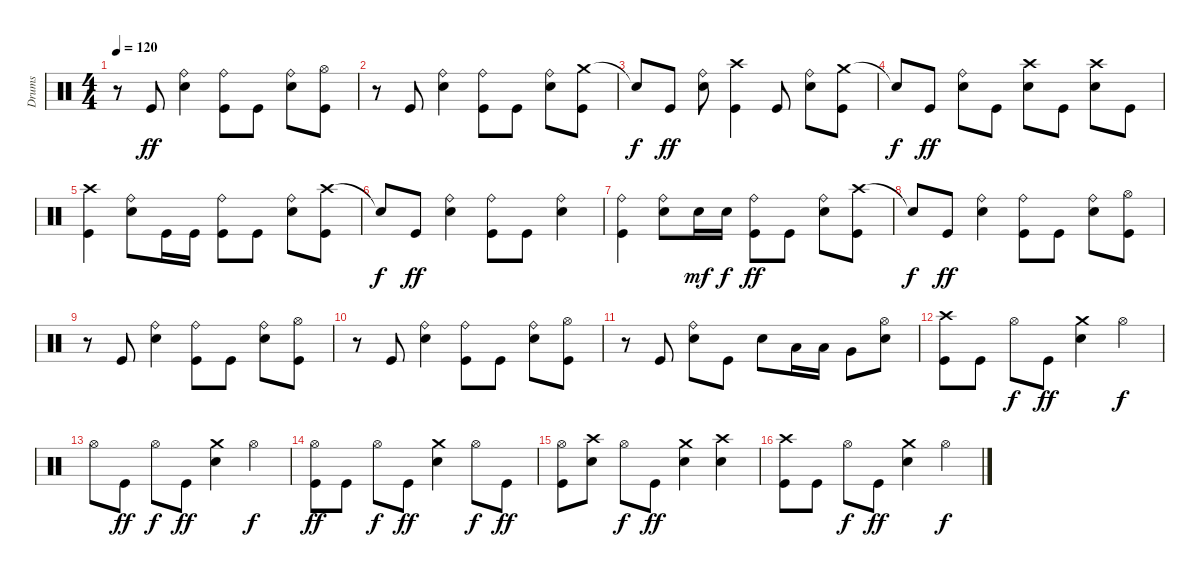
\track ("Drums" "Drums") {instrument percussion}
\staff {score}
\articulation defaults
\ts (4 4)
\tempo 120
\clef neutral
\ks c
r.8{dy ff} "Kick (hit)".8 ("Ride (bell)" "Electric Snare (hit)").4 ("Ride (bell)" "Kick (hit)").8 "Kick (hit)".8 ("Ride (bell)" "Electric Snare (hit)").8 ("Hi-Hat (open)" "Kick (hit)").8 |
r.8 "Kick (hit)".8 ("Ride (bell)" "Electric Snare (hit)").4 ("Ride (bell)" "Kick (hit)").8 "Kick (hit)".8 ("Ride (bell)" "Electric Snare (hit)").8 ("Crash medium (hit)" "Kick (hit)").8 |
"Snare (hit)"{t}.8{dy f} "Kick (hit)".8{dy ff} ("Ride (bell)" "Electric Snare (hit)").8 ("Crash high (hit)" "Kick (hit)").4 "Kick (hit)".8 ("Ride (bell)" "Electric Snare (hit)").8 ("Crash medium (hit)" "Kick (hit)").8 |
"Snare (hit)"{t}.8{dy f} "Kick (hit)".8{dy ff} ("Ride (bell)" "Electric Snare (hit)").8 "Kick (hit)".8 ("Crash high (hit)" "Electric Snare (hit)").8 "Kick (hit)".8 ("Crash high (hit)" "Electric Snare (hit)").8 "Kick (hit)".8 |
("Crash high (hit)" "Kick (hit)").4 ("Ride (bell)" "Electric Snare (hit)").8 "Kick (hit)".16 "Kick (hit)".16 ("Ride (bell)" "Kick (hit)").8 "Kick (hit)".8 ("Ride (bell)" "Electric Snare (hit)").8 ("Crash high (hit)" "Kick (hit)").8 |
"Snare (hit)"{t}.8{dy f} "Kick (hit)".8{dy ff} ("Ride (bell)" "Electric Snare (hit)").4 ("Ride (bell)" "Kick (hit)").8 "Kick (hit)".8 ("Ride (bell)" "Electric Snare (hit)").4 |
("Ride (bell)" "Kick (hit)").4 ("Ride (bell)" "Electric Snare (hit)").8 "Electric Snare (hit)".16{dy mf} "Electric Snare (hit)".16{dy f} ("Ride (bell)" "Kick (hit)").8{dy ff} "Kick (hit)".8 ("Ride (bell)" "Electric Snare (hit)").8 ("Crash high (hit)" "Kick (hit)").8 |
"Snare (hit)"{t}.8{dy f} "Kick (hit)".8{dy ff} ("Ride (bell)" "Electric Snare (hit)").4 ("Ride (bell)" "Kick (hit)").8 "Kick (hit)".8 ("Ride (bell)" "Electric Snare (hit)").8 ("Hi-Hat (open)" "Kick (hit)").8 |
r.8 "Kick (hit)".8 ("Ride (bell)" "Electric Snare (hit)").4 ("Ride (bell)" "Kick (hit)").8 "Kick (hit)".8 ("Ride (bell)" "Electric Snare (hit)").8 ("Hi-Hat (open)" "Kick (hit)").8 |
r.8 "Kick (hit)".8 ("Ride (bell)" "Electric Snare (hit)").4 ("Ride (bell)" "Kick (hit)").8 "Kick (hit)".8 ("Ride (bell)" "Electric Snare (hit)").8 ("Hi-Hat (open)" "Kick (hit)").8 |
r.8 "Kick (hit)".8 ("Ride (bell)" "Electric Snare (hit)").8 "Kick (hit)".8 "Electric Snare (hit)".8 "Low Tom (hit)".16 "Low Tom (hit)".16 "Very Low Tom (hit)".8 ("Hi-Hat (open)" "Electric Snare (hit)").8 |
("Crash high (hit)" "Kick (hit)").8 "Kick (hit)".8 "Hi-Hat (open)".8{dy f} "Kick (hit)".8{dy ff} ("Crash medium (hit)" "Electric Snare (hit)").4 "Hi-Hat (open)".4{dy f} |
"Hi-Hat (open)".8 "Kick (hit)".8{dy ff} "Hi-Hat (open)".8{dy f} "Kick (hit)".8{dy ff} ("Crash medium (hit)" "Electric Snare (hit)").4 "Hi-Hat (open)".4{dy f} |
("Hi-Hat (open)" "Kick (hit)").8{dy ff} "Kick (hit)".8 "Hi-Hat (open)".8{dy f} "Kick (hit)".8{dy ff} ("Crash medium (hit)" "Electric Snare (hit)").4 "Hi-Hat (open)".8{dy f} "Kick (hit)".8{dy ff} |
("Hi-Hat (open)" "Kick (hit)").8 ("Crash high (hit)" "Electric Snare (hit)").8 "Hi-Hat (open)".8{dy f} "Kick (hit)".8{dy ff} ("Crash medium (hit)" "Electric Snare (hit)").4 ("Crash high (hit)" "Electric Snare (hit)").4 |
("Crash high (hit)" "Kick (hit)").8 "Kick (hit)".8 "Hi-Hat (open)".8{dy f} "Kick (hit)".8{dy ff} ("Crash medium (hit)" "Electric Snare (hit)").4 "Hi-Hat (open)".4{dy f}
